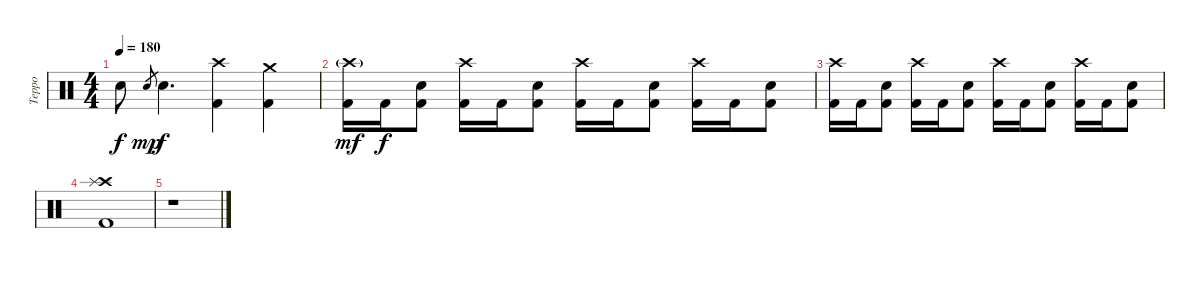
\track ("Teppo" "Teppo") {instrument percussion}
\staff {score}
\articulation defaults
\ts (4 4)
\tempo 180
\clef neutral
\ks c "Snare (hit)"{t}.8{dy f} "Electric Snare (hit)".8{gr dy mp} "Electric Snare (hit)".4{d dy f}
("Crash high (hit)" "Kick (hit) 2").4 ("Crash medium (hit)" "Kick (hit) 2").4 |
("Crash high (hit)"{g} "Kick (hit) 2").16{dy mf} "Kick (hit) 2".16{dy f} ("Electric Snare (hit)" "Kick (hit) 2").8 ("Crash high (hit)" "Kick (hit) 2").16 "Kick (hit) 2".16 ("Electric Snare (hit)" "Kick (hit) 2").8 ("Crash high (hit)" "Kick (hit) 2").16 "Kick (hit) 2".16 ("Electric Snare (hit)" "Kick (hit) 2").8 ("Crash high (hit)" "Kick (hit) 2").16 "Kick (hit) 2".16 ("Electric Snare (hit)" "Kick (hit) 2").8 |
("Crash high (hit)" "Kick (hit) 2").16 "Kick (hit) 2".16 ("Electric Snare (hit)" "Kick (hit) 2").8 ("Crash high (hit)" "Kick (hit) 2").16 "Kick (hit) 2".16 ("Electric Snare (hit)" "Kick (hit) 2").8 ("Crash high (hit)" "Kick (hit) 2").16 "Kick (hit) 2".16 ("Electric Snare (hit)" "Kick (hit) 2").8 ("Crash high (hit)" "Kick (hit) 2").16 "Kick (hit) 2".16 ("Electric Snare (hit)" "Kick (hit) 2").8 |
("Crash high (hit)" "Splash (hit)" "Kick (hit) 2").1 |
r.1
